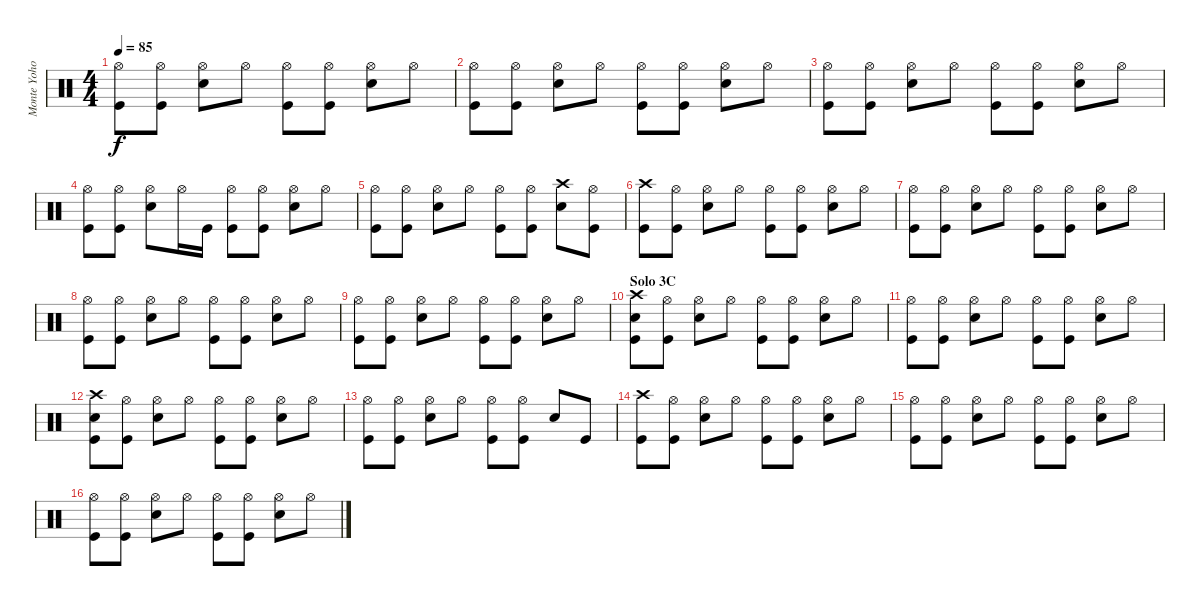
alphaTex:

\track ("Monte Yoho - Drums" "Monte Yoho") {instrument percussion}
\staff {score}
\articulation defaults
\ts (4 4)
\tempo 85
\clef neutral
\ks c
("Hi-Hat (open)" "Kick (hit)").8{dy f} ("Hi-Hat (open)" "Kick (hit)").8 ("Hi-Hat (open)" "Snare (hit) 2").8 "Hi-Hat (open)".8 ("Hi-Hat (open)" "Kick (hit)").8 ("Hi-Hat (open)" "Kick (hit)").8 ("Hi-Hat (open)" "Snare (hit) 2").8 "Hi-Hat (open)".8 |
("Hi-Hat (open)" "Kick (hit)").8 ("Hi-Hat (open)" "Kick (hit)").8 ("Hi-Hat (open)" "Snare (hit) 2").8 "Hi-Hat (open)".8 ("Hi-Hat (open)" "Kick (hit)").8 ("Hi-Hat (open)" "Kick (hit)").8 ("Hi-Hat (open)" "Snare (hit) 2").8 "Hi-Hat (open)".8 |
("Hi-Hat (open)" "Kick (hit)").8 ("Hi-Hat (open)" "Kick (hit)").8 ("Hi-Hat (open)" "Snare (hit) 2").8 "Hi-Hat (open)".8 ("Hi-Hat (open)" "Kick (hit)").8 ("Hi-Hat (open)" "Kick (hit)").8 ("Hi-Hat (open)" "Snare (hit) 2").8 "Hi-Hat (open)".8 |
("Hi-Hat (open)" "Kick (hit)").8 ("Hi-Hat (open)" "Kick (hit)").8 ("Hi-Hat (open)" "Snare (hit) 2").8 "Hi-Hat (open)".16 "Kick (hit)".16 ("Hi-Hat (open)" "Kick (hit)").8 ("Hi-Hat (open)" "Kick (hit)").8 ("Hi-Hat (open)" "Snare (hit) 2").8 "Hi-Hat (open)".8 |
("Hi-Hat (open)" "Kick (hit)").8 ("Hi-Hat (open)" "Kick (hit)").8 ("Hi-Hat (open)" "Snare (hit) 2").8 "Hi-Hat (open)".8 ("Hi-Hat (open)" "Kick (hit)").8 ("Hi-Hat (open)" "Kick (hit)").8 ("Crash high (hit)" "Snare (hit) 2").8 ("Hi-Hat (open)" "Kick (hit)").8 |
("Crash high (hit)" "Kick (hit)").8 ("Hi-Hat (open)" "Kick (hit)").8 ("Hi-Hat (open)" "Snare (hit) 2").8 "Hi-Hat (open)".8 ("Hi-Hat (open)" "Kick (hit)").8 ("Hi-Hat (open)" "Kick (hit)").8 ("Hi-Hat (open)" "Snare (hit) 2").8 "Hi-Hat (open)".8 |
("Hi-Hat (open)" "Kick (hit)").8 ("Hi-Hat (open)" "Kick (hit)").8 ("Hi-Hat (open)" "Snare (hit) 2").8 "Hi-Hat (open)".8 ("Hi-Hat (open)" "Kick (hit)").8 ("Hi-Hat (open)" "Kick (hit)").8 ("Hi-Hat (open)" "Snare (hit) 2").8 "Hi-Hat (open)".8 |
("Hi-Hat (open)" "Kick (hit)").8 ("Hi-Hat (open)" "Kick (hit)").8 ("Hi-Hat (open)" "Snare (hit) 2").8 "Hi-Hat (open)".8 ("Hi-Hat (open)" "Kick (hit)").8 ("Hi-Hat (open)" "Kick (hit)").8 ("Hi-Hat (open)" "Snare (hit) 2").8 "Hi-Hat (open)".8 |
("Hi-Hat (open)" "Kick (hit)").8 ("Hi-Hat (open)" "Kick (hit)").8 ("Hi-Hat (open)" "Snare (hit) 2").8 "Hi-Hat (open)".8 ("Hi-Hat (open)" "Kick (hit)").8 ("Hi-Hat (open)" "Kick (hit)").8 ("Hi-Hat (open)" "Snare (hit) 2").8 "Hi-Hat (open)".8 |
\section ("" "Solo 3C")
("Crash high (hit)" "Snare (hit) 2" "Kick (hit)").8 ("Hi-Hat (open)" "Kick (hit)").8 ("Hi-Hat (open)" "Snare (hit) 2").8 "Hi-Hat (open)".8 ("Hi-Hat (open)" "Kick (hit)").8 ("Hi-Hat (open)" "Kick (hit)").8 ("Hi-Hat (open)" "Snare (hit) 2").8 "Hi-Hat (open)".8 |
("Hi-Hat (open)" "Kick (hit)").8 ("Hi-Hat (open)" "Kick (hit)").8 ("Hi-Hat (open)" "Snare (hit) 2").8 "Hi-Hat (open)".8 ("Hi-Hat (open)" "Kick (hit)").8 ("Hi-Hat (open)" "Kick (hit)").8 ("Hi-Hat (open)" "Snare (hit) 2").8 "Hi-Hat (open)".8 |
("Crash high (hit)" "Snare (hit) 2" "Kick (hit)").8 ("Hi-Hat (open)" "Kick (hit)").8 ("Hi-Hat (open)" "Snare (hit) 2").8 "Hi-Hat (open)".8 ("Hi-Hat (open)" "Kick (hit)").8 ("Hi-Hat (open)" "Kick (hit)").8 ("Hi-Hat (open)" "Snare (hit) 2").8 "Hi-Hat (open)".8 |
("Hi-Hat (open)" "Kick (hit)").8 ("Hi-Hat (open)" "Kick (hit)").8 ("Hi-Hat (open)" "Snare (hit) 2").8 "Hi-Hat (open)".8 ("Hi-Hat (open)" "Kick (hit)").8 ("Hi-Hat (open)" "Kick (hit)").8 "Snare (hit) 2".8 "Kick (hit)".8 |
("Crash high (hit)" "Kick (hit)").8 ("Hi-Hat (open)" "Kick (hit)").8 ("Hi-Hat (open)" "Snare (hit) 2").8 "Hi-Hat (open)".8 ("Hi-Hat (open)" "Kick (hit)").8 ("Hi-Hat (open)" "Kick (hit)").8 ("Hi-Hat (open)" "Snare (hit) 2").8 "Hi-Hat (open)".8 |
("Hi-Hat (open)" "Kick (hit)").8 ("Hi-Hat (open)" "Kick (hit)").8 ("Hi-Hat (open)" "Snare (hit) 2").8 "Hi-Hat (open)".8 ("Hi-Hat (open)" "Kick (hit)").8 ("Hi-Hat (open)" "Kick (hit)").8 ("Hi-Hat (open)" "Snare (hit) 2").8 "Hi-Hat (open)".8 |
("Hi-Hat (open)" "Kick (hit)").8 ("Hi-Hat (open)" "Kick (hit)").8 ("Hi-Hat (open)" "Snare (hit) 2").8 "Hi-Hat (open)".8 ("Hi-Hat (open)" "Kick (hit)").8 ("Hi-Hat (open)" "Kick (hit)").8 ("Hi-Hat (open)" "Snare (hit) 2").8 "Hi-Hat (open)".8
